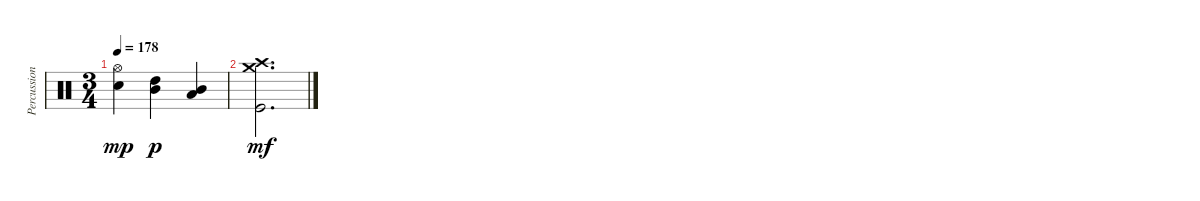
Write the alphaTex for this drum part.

\track ("Percussions" "Percussion") {instrument percussion}
\staff {score}
\articulation defaults
\ts (3 4)
\tempo 178
\clef neutral
\ks c
("Electric Snare (hit)" "Hi-Hat (open)").4{dy mp} ("Mid Tom (hit)" "High Tom (hit)").4{dy p} ("Low Tom (hit)" "Mid Tom (hit)").4 |
("Kick (hit)" "Crash high (hit)" "Crash medium (hit)").2{d dy mf}
